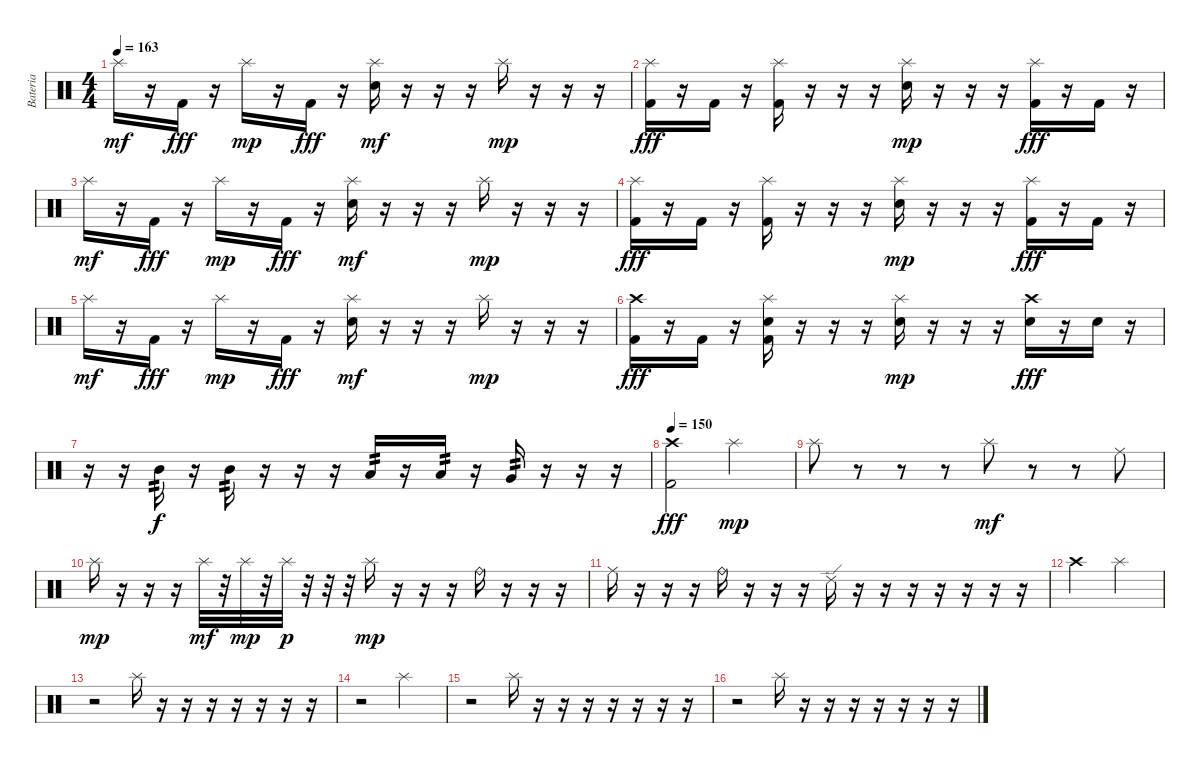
\track ("Bateria" "Bateria") {instrument percussion}
\staff {score}
\articulation defaults
\ts (4 4)
\tempo 163
\clef neutral
\ks c "Splash (hit)".16{dy mf}
r.16 "Kick (hit) 2".16{dy fff} r.16 "Splash (hit)".16{dy mp} r.16 "Kick (hit) 2".16{dy fff} r.16 ("Splash (hit)" "Electric Snare (hit)").16{dy mf} r.16 r.16 r.16 "Splash (hit)".16{dy mp} r.16 r.16 r.16 |
("Splash (hit)" "Kick (hit) 2").16{dy fff} r.16 "Kick (hit) 2".16 r.16 ("Splash (hit)" "Kick (hit) 2").16 r.16 r.16 r.16 ("Splash (hit)" "Electric Snare (hit)").16{dy mp} r.16 r.16 r.16 ("Splash (hit)" "Kick (hit) 2").16{dy fff} r.16 "Kick (hit) 2".16 r.16 |
"Splash (hit)".16{dy mf} r.16 "Kick (hit) 2".16{dy fff} r.16 "Splash (hit)".16{dy mp} r.16 "Kick (hit) 2".16{dy fff} r.16 ("Splash (hit)" "Electric Snare (hit)").16{dy mf} r.16 r.16 r.16 "Splash (hit)".16{dy mp} r.16 r.16 r.16 |
("Splash (hit)" "Kick (hit) 2").16{dy fff} r.16 "Kick (hit) 2".16 r.16 ("Splash (hit)" "Kick (hit) 2").16 r.16 r.16 r.16 ("Splash (hit)" "Electric Snare (hit)").16{dy mp} r.16 r.16 r.16 ("Splash (hit)" "Kick (hit) 2").16{dy fff} r.16 "Kick (hit) 2".16 r.16 |
"Splash (hit)".16{dy mf} r.16 "Kick (hit) 2".16{dy fff} r.16 "Splash (hit)".16{dy mp} r.16 "Kick (hit) 2".16{dy fff} r.16 ("Splash (hit)" "Electric Snare (hit)").16{dy mf} r.16 r.16 r.16 "Splash (hit)".16{dy mp} r.16 r.16 r.16 |
("Crash high (hit)" "Kick (hit) 2").16{dy fff} r.16 "Kick (hit) 2".16 r.16 ("Splash (hit)" "Kick (hit) 2" "Electric Snare (hit)").16 r.16 r.16 r.16 ("Splash (hit)" "Electric Snare (hit)").16{dy mp} r.16 r.16 r.16 ("Crash high (hit)" "Electric Snare (hit)").16{dy fff} r.16 "Electric Snare (hit)".16 r.16 |
r.16 r.16 "Mid Tom (hit)".16{tp 2 dy f} r.16 "Mid Tom (hit)".16{tp 2} r.16 r.16 r.16 "Low Tom (hit)".16{tp 2} r.16 "Low Tom (hit)".16{tp 2} r.16 "Very Low Tom (hit)".16{tp 2} r.16 r.16 r.16 |
\tempo 150
("Crash high (hit)" "Kick (hit) 2").2{dy fff} "Splash (hit)".2{dy mp} |
"Splash (hit)".8 r.8 r.8 r.8 "Splash (hit)".8{dy mf} r.8 r.8 "Ride (middle)".8 |
"Splash (hit)".16{dy mp} r.16 r.16 r.16 "Splash (hit)".32{dy mf} r.32 "Splash (hit)".32{dy mp} r.32 "Splash (hit)".32{dy p} r.32 r.32 r.32 "Splash (hit)".16{dy mp} r.16 r.16 r.16 "Ride (bell)".16 r.16 r.16 r.16 |
"Ride (middle)".16 r.16 r.16 r.16 "Ride (bell)".16 r.16 r.16 r.16 "Ride (edge) 2".16 r.16 r.16 r.16 r.16 r.16 r.16 r.16 |
"Crash high (hit)".2 "Splash (hit)".2 |
r.2 "Splash (hit)".16 r.16 r.16 r.16 r.16 r.16 r.16 r.16 |
r.2 "Splash (hit)".2 |
r.2 "Splash (hit)".16 r.16 r.16 r.16 r.16 r.16 r.16 r.16 |
r.2 "Splash (hit)".16 r.16 r.16 r.16 r.16 r.16 r.16 r.16
